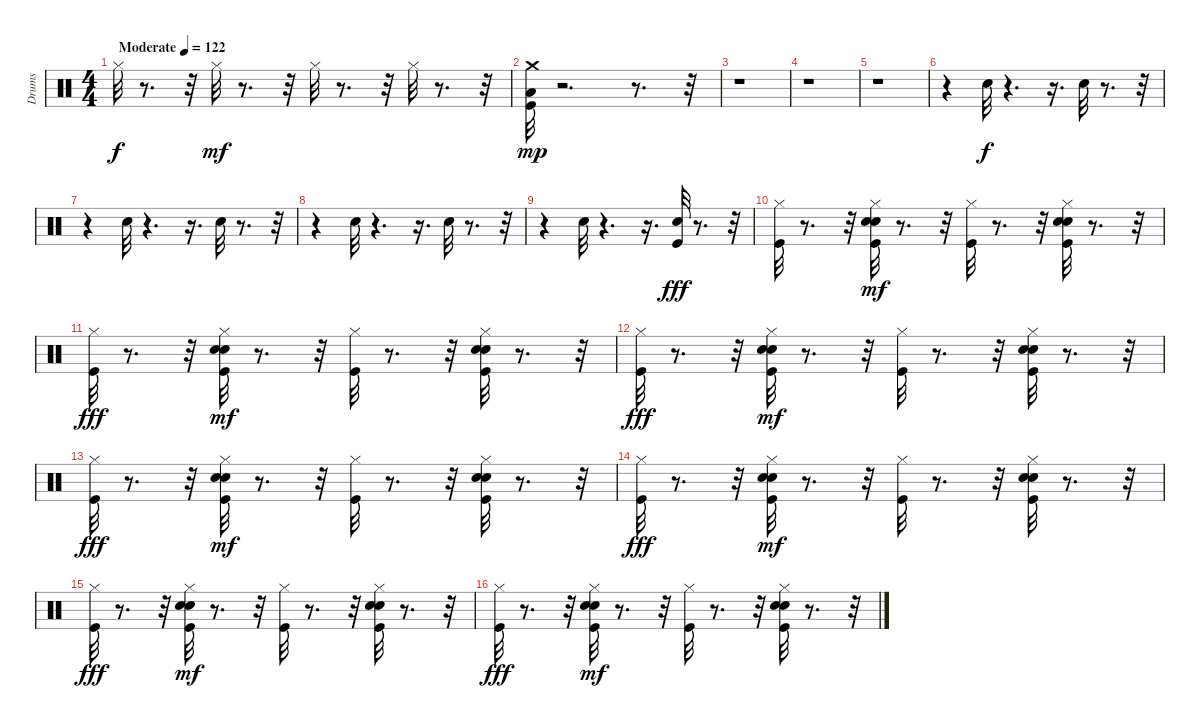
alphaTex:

\track ("Drums" "Drums") {instrument percussion}
\staff {score}
\articulation defaults
\ts (4 4)
\tempo (122 "Moderate")
\clef neutral
\ks c "Hi-Hat (closed)".32{dy f}
r.8{d} r.32 "Hi-Hat (closed)".32{dy mf} r.8{d} r.32 "Hi-Hat (closed)".32 r.8{d} r.32 "Hi-Hat (closed)".32 r.8{d} r.32 |
("Kick (hit)" "Low Floor Tom (hit)" "Crash medium (hit)").32{dy mp} r.2{d} r.8{d} r.32 |
r.1 |
r.1 |
r.1 |
r.4 "Hand Clap (hit)".32{dy f} r.4{d} r.16{d} "Hand Clap (hit)".32 r.8{d} r.32 |
r.4 "Hand Clap (hit)".32 r.4{d} r.16{d} "Hand Clap (hit)".32 r.8{d} r.32 |
r.4 "Hand Clap (hit)".32 r.4{d} r.16{d} "Hand Clap (hit)".32 r.8{d} r.32 |
r.4 "Hand Clap (hit)".32 r.4{d} r.16{d} ("Kick (hit)" "Hand Clap (hit)").32{dy fff} r.8{d} r.32 |
("Kick (hit)" "Hi-Hat (closed)").32 r.8{d} r.32 ("Kick (hit)" "Hand Clap (hit)" "Electric Snare (hit)" "Hi-Hat (closed)").32{dy mf} r.8{d} r.32 ("Kick (hit)" "Hi-Hat (closed)").32 r.8{d} r.32 ("Kick (hit)" "Hand Clap (hit)" "Electric Snare (hit)" "Hi-Hat (closed)").32 r.8{d} r.32 |
("Kick (hit)" "Hi-Hat (closed)").32{dy fff} r.8{d} r.32 ("Kick (hit)" "Hand Clap (hit)" "Electric Snare (hit)" "Hi-Hat (closed)").32{dy mf} r.8{d} r.32 ("Kick (hit)" "Hi-Hat (closed)").32 r.8{d} r.32 ("Kick (hit)" "Hand Clap (hit)" "Electric Snare (hit)" "Hi-Hat (closed)").32 r.8{d} r.32 |
("Kick (hit)" "Hi-Hat (closed)").32{dy fff} r.8{d} r.32 ("Kick (hit)" "Hand Clap (hit)" "Electric Snare (hit)" "Hi-Hat (closed)").32{dy mf} r.8{d} r.32 ("Kick (hit)" "Hi-Hat (closed)").32 r.8{d} r.32 ("Kick (hit)" "Hand Clap (hit)" "Electric Snare (hit)" "Hi-Hat (closed)").32 r.8{d} r.32 |
("Kick (hit)" "Hi-Hat (closed)").32{dy fff} r.8{d} r.32 ("Kick (hit)" "Hand Clap (hit)" "Electric Snare (hit)" "Hi-Hat (closed)").32{dy mf} r.8{d} r.32 ("Kick (hit)" "Hi-Hat (closed)").32 r.8{d} r.32 ("Kick (hit)" "Hand Clap (hit)" "Electric Snare (hit)" "Hi-Hat (closed)").32 r.8{d} r.32 |
("Kick (hit)" "Hi-Hat (closed)").32{dy fff} r.8{d} r.32 ("Kick (hit)" "Hand Clap (hit)" "Electric Snare (hit)" "Hi-Hat (closed)").32{dy mf} r.8{d} r.32 ("Kick (hit)" "Hi-Hat (closed)").32 r.8{d} r.32 ("Kick (hit)" "Hand Clap (hit)" "Electric Snare (hit)" "Hi-Hat (closed)").32 r.8{d} r.32 |
("Kick (hit)" "Hi-Hat (closed)").32{dy fff} r.8{d} r.32 ("Kick (hit)" "Hand Clap (hit)" "Electric Snare (hit)" "Hi-Hat (closed)").32{dy mf} r.8{d} r.32 ("Kick (hit)" "Hi-Hat (closed)").32 r.8{d} r.32 ("Kick (hit)" "Hand Clap (hit)" "Electric Snare (hit)" "Hi-Hat (closed)").32 r.8{d} r.32 |
("Kick (hit)" "Hi-Hat (closed)").32{dy fff} r.8{d} r.32 ("Kick (hit)" "Hand Clap (hit)" "Electric Snare (hit)" "Hi-Hat (closed)").32{dy mf} r.8{d} r.32 ("Kick (hit)" "Hi-Hat (closed)").32 r.8{d} r.32 ("Kick (hit)" "Hand Clap (hit)" "Electric Snare (hit)" "Hi-Hat (closed)").32 r.8{d} r.32
